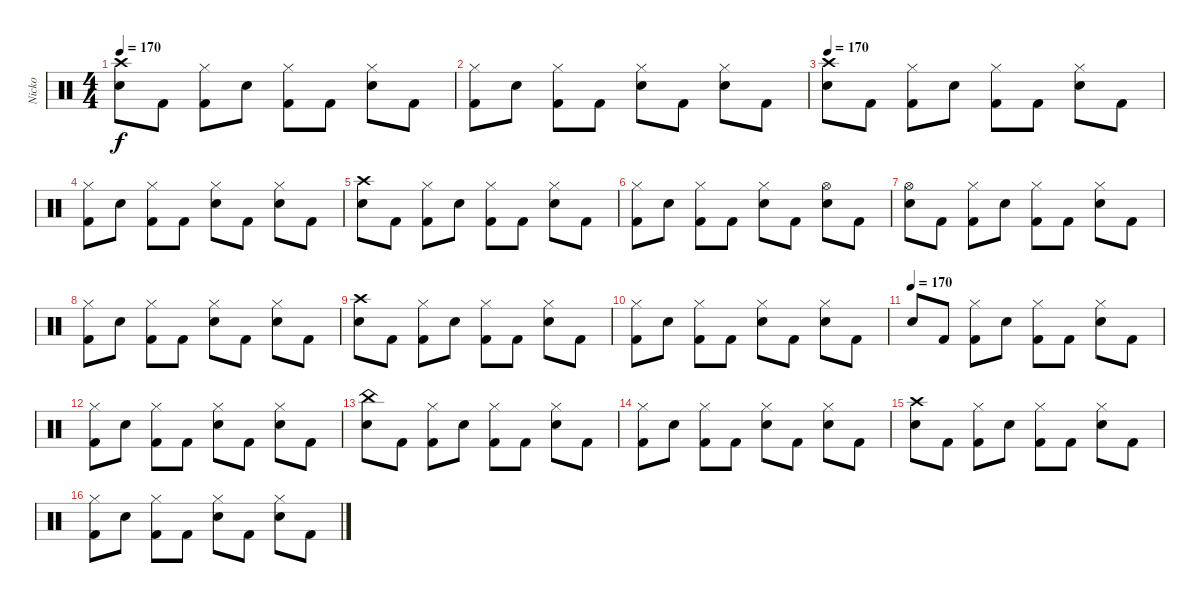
\track ("Nicko" "Nicko") {instrument percussion}
\staff {score}
\articulation defaults
\ts (4 4)
\tempo 170
\clef neutral
\ks c
("Crash high (hit)" "Snare (hit) 2").8{dy f} "Kick (hit) 2".8 ("Hi-Hat (closed)" "Kick (hit) 2").8 "Snare (hit) 2".8 ("Hi-Hat (closed)" "Kick (hit) 2").8 "Kick (hit) 2".8 ("Hi-Hat (closed)" "Snare (hit) 2").8 "Kick (hit) 2".8 |
("Hi-Hat (closed)" "Kick (hit) 2").8 "Snare (hit) 2".8 ("Hi-Hat (closed)" "Kick (hit) 2").8 "Kick (hit) 2".8 ("Hi-Hat (closed)" "Snare (hit) 2").8 "Kick (hit) 2".8 ("Hi-Hat (closed)" "Snare (hit) 2").8 "Kick (hit) 2".8 |
\tempo 180
\tempo 170
("Crash high (hit)" "Snare (hit) 2").8 "Kick (hit) 2".8 ("Hi-Hat (closed)" "Kick (hit) 2").8 "Snare (hit) 2".8 ("Hi-Hat (closed)" "Kick (hit) 2").8 "Kick (hit) 2".8 ("Hi-Hat (closed)" "Snare (hit) 2").8 "Kick (hit) 2".8 |
("Hi-Hat (closed)" "Kick (hit) 2").8 "Snare (hit) 2".8 ("Hi-Hat (closed)" "Kick (hit) 2").8 "Kick (hit) 2".8 ("Hi-Hat (closed)" "Snare (hit) 2").8 "Kick (hit) 2".8 ("Hi-Hat (closed)" "Snare (hit) 2").8 "Kick (hit) 2".8 |
("Crash high (hit)" "Snare (hit) 2").8 "Kick (hit) 2".8 ("Hi-Hat (closed)" "Kick (hit) 2").8 "Snare (hit) 2".8 ("Hi-Hat (closed)" "Kick (hit) 2").8 "Kick (hit) 2".8 ("Hi-Hat (closed)" "Snare (hit) 2").8 "Kick (hit) 2".8 |
("Hi-Hat (closed)" "Kick (hit) 2").8 "Snare (hit) 2".8 ("Hi-Hat (closed)" "Kick (hit) 2").8 "Kick (hit) 2".8 ("Hi-Hat (closed)" "Snare (hit) 2").8 "Kick (hit) 2".8 ("Hi-Hat (open)" "Snare (hit) 2").8 "Kick (hit) 2".8 |
("Hi-Hat (open)" "Snare (hit) 2").8 "Kick (hit) 2".8 ("Hi-Hat (closed)" "Kick (hit) 2").8 "Snare (hit) 2".8 ("Hi-Hat (closed)" "Kick (hit) 2").8 "Kick (hit) 2".8 ("Hi-Hat (closed)" "Snare (hit) 2").8 "Kick (hit) 2".8 |
("Hi-Hat (closed)" "Kick (hit) 2").8 "Snare (hit) 2".8 ("Hi-Hat (closed)" "Kick (hit) 2").8 "Kick (hit) 2".8 ("Hi-Hat (closed)" "Snare (hit) 2").8 "Kick (hit) 2".8 ("Hi-Hat (closed)" "Snare (hit) 2").8 "Kick (hit) 2".8 |
("Crash high (hit)" "Snare (hit) 2").8 "Kick (hit) 2".8 ("Hi-Hat (closed)" "Kick (hit) 2").8 "Snare (hit) 2".8 ("Hi-Hat (closed)" "Kick (hit) 2").8 "Kick (hit) 2".8 ("Hi-Hat (closed)" "Snare (hit) 2").8 "Kick (hit) 2".8 |
("Hi-Hat (closed)" "Kick (hit) 2").8 "Snare (hit) 2".8 ("Hi-Hat (closed)" "Kick (hit) 2").8 "Kick (hit) 2".8 ("Hi-Hat (closed)" "Snare (hit) 2").8 "Kick (hit) 2".8 ("Hi-Hat (closed)" "Snare (hit) 2").8 "Kick (hit) 2".8 |
\tempo 180
\tempo (170)
"Snare (hit) 2".8 "Kick (hit) 2".8 ("Hi-Hat (closed)" "Kick (hit) 2").8 "Snare (hit) 2".8 ("Hi-Hat (closed)" "Kick (hit) 2").8 "Kick (hit) 2".8 ("Hi-Hat (closed)" "Snare (hit) 2").8 "Kick (hit) 2".8 |
("Hi-Hat (closed)" "Kick (hit) 2").8 "Snare (hit) 2".8 ("Hi-Hat (closed)" "Kick (hit) 2").8 "Kick (hit) 2".8 ("Hi-Hat (closed)" "Snare (hit) 2").8 "Kick (hit) 2".8 ("Hi-Hat (closed)" "Snare (hit) 2").8 "Kick (hit) 2".8 |
("China (hit)" "Snare (hit) 2").8 "Kick (hit) 2".8 ("Hi-Hat (closed)" "Kick (hit) 2").8 "Snare (hit) 2".8 ("Hi-Hat (closed)" "Kick (hit) 2").8 "Kick (hit) 2".8 ("Hi-Hat (closed)" "Snare (hit) 2").8 "Kick (hit) 2".8 |
("Hi-Hat (closed)" "Kick (hit) 2").8 "Snare (hit) 2".8 ("Hi-Hat (closed)" "Kick (hit) 2").8 "Kick (hit) 2".8 ("Hi-Hat (closed)" "Snare (hit) 2").8 "Kick (hit) 2".8 ("Hi-Hat (closed)" "Snare (hit) 2").8 "Kick (hit) 2".8 |
("Crash high (hit)" "Snare (hit) 2").8 "Kick (hit) 2".8 ("Hi-Hat (closed)" "Kick (hit) 2").8 "Snare (hit) 2".8 ("Hi-Hat (closed)" "Kick (hit) 2").8 "Kick (hit) 2".8 ("Hi-Hat (closed)" "Snare (hit) 2").8 "Kick (hit) 2".8 |
("Hi-Hat (closed)" "Kick (hit) 2").8 "Snare (hit) 2".8 ("Hi-Hat (closed)" "Kick (hit) 2").8 "Kick (hit) 2".8 ("Hi-Hat (closed)" "Snare (hit) 2").8 "Kick (hit) 2".8 ("Hi-Hat (closed)" "Snare (hit) 2").8 "Kick (hit) 2".8
